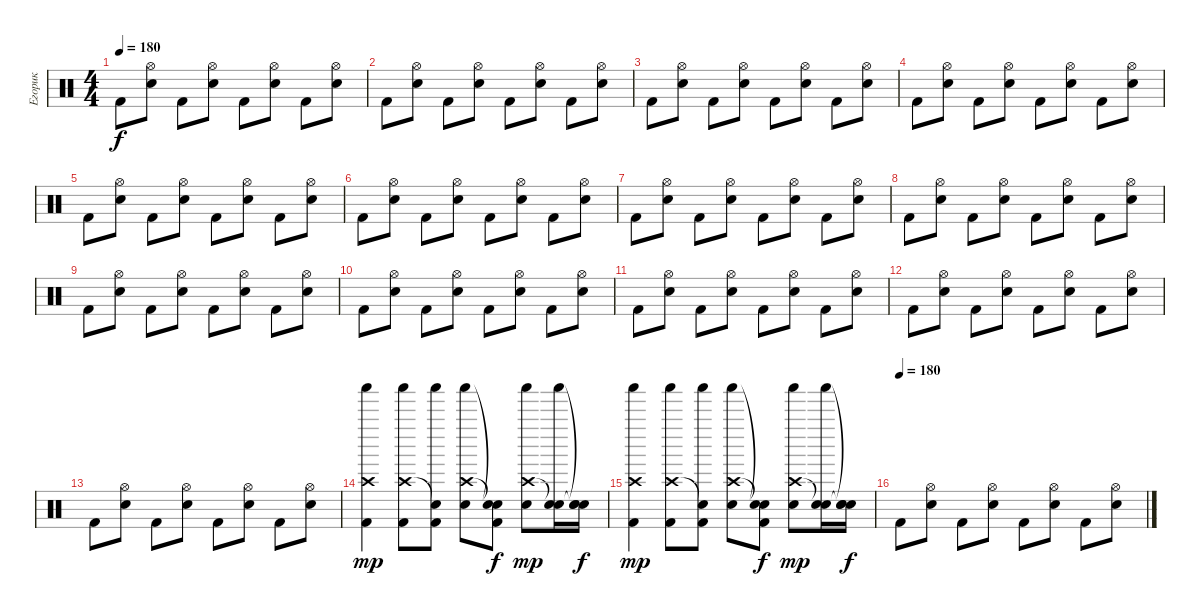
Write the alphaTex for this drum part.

\track ("Егорик" "Егорик") {instrument percussion}
\staff {score}
\articulation defaults
\ts (4 4)
\tempo 180
\clef neutral
\ks c "Kick (hit) 2".8{dy f}
("Hi-Hat (open)" "Electric Snare (hit)").8 "Kick (hit) 2".8 ("Hi-Hat (open)" "Electric Snare (hit)").8 "Kick (hit) 2".8 ("Hi-Hat (open)" "Electric Snare (hit)").8 "Kick (hit) 2".8 ("Hi-Hat (open)" "Electric Snare (hit)").8 |
"Kick (hit) 2".8 ("Hi-Hat (open)" "Electric Snare (hit)").8 "Kick (hit) 2".8 ("Hi-Hat (open)" "Electric Snare (hit)").8 "Kick (hit) 2".8 ("Hi-Hat (open)" "Electric Snare (hit)").8 "Kick (hit) 2".8 ("Hi-Hat (open)" "Electric Snare (hit)").8 |
"Kick (hit) 2".8 ("Hi-Hat (open)" "Electric Snare (hit)").8 "Kick (hit) 2".8 ("Hi-Hat (open)" "Electric Snare (hit)").8 "Kick (hit) 2".8 ("Hi-Hat (open)" "Electric Snare (hit)").8 "Kick (hit) 2".8 ("Hi-Hat (open)" "Electric Snare (hit)").8 |
"Kick (hit) 2".8 ("Hi-Hat (open)" "Electric Snare (hit)").8 "Kick (hit) 2".8 ("Hi-Hat (open)" "Electric Snare (hit)").8 "Kick (hit) 2".8 ("Hi-Hat (open)" "Electric Snare (hit)").8 "Kick (hit) 2".8 ("Hi-Hat (open)" "Electric Snare (hit)").8 |
"Kick (hit) 2".8 ("Hi-Hat (open)" "Electric Snare (hit)").8 "Kick (hit) 2".8 ("Hi-Hat (open)" "Electric Snare (hit)").8 "Kick (hit) 2".8 ("Hi-Hat (open)" "Electric Snare (hit)").8 "Kick (hit) 2".8 ("Hi-Hat (open)" "Electric Snare (hit)").8 |
"Kick (hit) 2".8 ("Hi-Hat (open)" "Electric Snare (hit)").8 "Kick (hit) 2".8 ("Hi-Hat (open)" "Electric Snare (hit)").8 "Kick (hit) 2".8 ("Hi-Hat (open)" "Electric Snare (hit)").8 "Kick (hit) 2".8 ("Hi-Hat (open)" "Electric Snare (hit)").8 |
"Kick (hit) 2".8 ("Hi-Hat (open)" "Electric Snare (hit)").8 "Kick (hit) 2".8 ("Hi-Hat (open)" "Electric Snare (hit)").8 "Kick (hit) 2".8 ("Hi-Hat (open)" "Electric Snare (hit)").8 "Kick (hit) 2".8 ("Hi-Hat (open)" "Electric Snare (hit)").8 |
"Kick (hit) 2".8 ("Hi-Hat (open)" "Electric Snare (hit)").8 "Kick (hit) 2".8 ("Hi-Hat (open)" "Electric Snare (hit)").8 "Kick (hit) 2".8 ("Hi-Hat (open)" "Electric Snare (hit)").8 "Kick (hit) 2".8 ("Hi-Hat (open)" "Electric Snare (hit)").8 |
"Kick (hit) 2".8 ("Hi-Hat (open)" "Electric Snare (hit)").8 "Kick (hit) 2".8 ("Hi-Hat (open)" "Electric Snare (hit)").8 "Kick (hit) 2".8 ("Hi-Hat (open)" "Electric Snare (hit)").8 "Kick (hit) 2".8 ("Hi-Hat (open)" "Electric Snare (hit)").8 |
"Kick (hit) 2".8 ("Hi-Hat (open)" "Electric Snare (hit)").8 "Kick (hit) 2".8 ("Hi-Hat (open)" "Electric Snare (hit)").8 "Kick (hit) 2".8 ("Hi-Hat (open)" "Electric Snare (hit)").8 "Kick (hit) 2".8 ("Hi-Hat (open)" "Electric Snare (hit)").8 |
"Kick (hit) 2".8 ("Hi-Hat (open)" "Electric Snare (hit)").8 "Kick (hit) 2".8 ("Hi-Hat (open)" "Electric Snare (hit)").8 "Kick (hit) 2".8 ("Hi-Hat (open)" "Electric Snare (hit)").8 "Kick (hit) 2".8 ("Hi-Hat (open)" "Electric Snare (hit)").8 |
"Kick (hit) 2".8 ("Hi-Hat (open)" "Electric Snare (hit)").8 "Kick (hit) 2".8 ("Hi-Hat (open)" "Electric Snare (hit)").8 "Kick (hit) 2".8 ("Hi-Hat (open)" "Electric Snare (hit)").8 "Kick (hit) 2".8 ("Hi-Hat (open)" "Electric Snare (hit)").8 |
"Kick (hit) 2".8 ("Hi-Hat (open)" "Electric Snare (hit)").8 "Kick (hit) 2".8 ("Hi-Hat (open)" "Electric Snare (hit)").8 "Kick (hit) 2".8 ("Hi-Hat (open)" "Electric Snare (hit)").8 "Kick (hit) 2".8 ("Hi-Hat (open)" "Electric Snare (hit)").8 |
("Crash high (hit)" "Shaker (hit)" "Kick (hit) 2").4{dy mp} ("Crash high (hit)" "Shaker (hit)" "Kick (hit) 2").8 ("Snare (hit)"{t} "Shaker (hit)" "Kick (hit) 2").8 ("Crash high (hit)" "Shaker (hit)" "Snare (hit) 2").8 ("Snare (hit)"{t} "Snare (hit)"{t} "Kick (hit) 2").8{dy f} ("Crash high (hit)" "Shaker (hit)" "Snare (hit) 2").8{dy mp} ("Snare (hit)"{t} "Shaker (hit)" "Snare (hit) 2").16 ("Snare (hit)"{t} "Snare (hit)"{t} "Snare (hit) 2").16{dy f} |
("Crash high (hit)" "Shaker (hit)" "Kick (hit) 2").4{dy mp} ("Crash high (hit)" "Shaker (hit)" "Kick (hit) 2").8 ("Snare (hit)"{t} "Shaker (hit)" "Kick (hit) 2").8 ("Crash high (hit)" "Shaker (hit)" "Snare (hit) 2").8 ("Snare (hit)"{t} "Snare (hit)"{t} "Kick (hit) 2").8{dy f} ("Crash high (hit)" "Shaker (hit)" "Snare (hit) 2").8{dy mp} ("Snare (hit)"{t} "Shaker (hit)" "Snare (hit) 2").16 ("Snare (hit)"{t} "Snare (hit)"{t} "Snare (hit) 2").16{dy f} |
\tempo (180)
"Kick (hit) 2".8 ("Hi-Hat (open)" "Electric Snare (hit)").8 "Kick (hit) 2".8 ("Hi-Hat (open)" "Electric Snare (hit)").8 "Kick (hit) 2".8 ("Hi-Hat (open)" "Electric Snare (hit)").8 "Kick (hit) 2".8 ("Hi-Hat (open)" "Electric Snare (hit)").8
